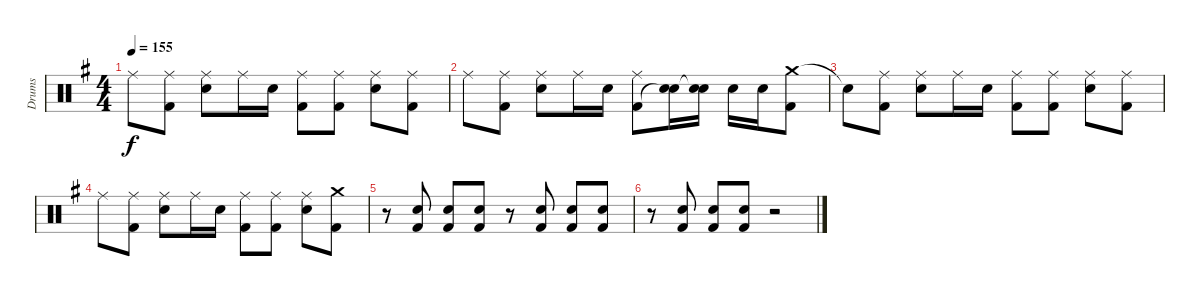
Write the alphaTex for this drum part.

\track ("Drums" "Drums") {instrument percussion}
\staff {score}
\articulation defaults
\ts (4 4)
\tempo 155
\clef neutral
\ks eminor "Ride (middle)".8{dy f}
("Ride (middle)" "Kick (hit) 2").8 ("Ride (middle)" "Electric Snare (hit)").8 "Ride (middle)".16 "Electric Snare (hit)".16 ("Ride (middle)" "Kick (hit) 2").8 ("Ride (middle)" "Kick (hit) 2").8 ("Ride (middle)" "Electric Snare (hit)").8 ("Ride (middle)" "Kick (hit) 2").8 |
"Ride (middle)".8 ("Ride (middle)" "Kick (hit) 2").8 ("Ride (middle)" "Electric Snare (hit)").8 "Ride (middle)".16 "Electric Snare (hit)".16 ("Ride (middle)" "Kick (hit) 2").8 ("Electric Snare (hit)" "Snare (hit)"{t}).16 ("Electric Snare (hit)" "Snare (hit)"{t}).16 "Electric Snare (hit)".16 "Electric Snare (hit)".16 ("Crash medium (hit)" "Kick (hit) 2").8 |
"Snare (hit)"{t}.8 ("Ride (middle)" "Kick (hit) 2").8 ("Ride (middle)" "Electric Snare (hit)").8 "Ride (middle)".16 "Electric Snare (hit)".16 ("Ride (middle)" "Kick (hit) 2").8 ("Ride (middle)" "Kick (hit) 2").8 ("Ride (middle)" "Electric Snare (hit)").8 ("Ride (middle)" "Kick (hit) 2").8 |
"Ride (middle)".8 ("Ride (middle)" "Kick (hit) 2").8 ("Ride (middle)" "Electric Snare (hit)").8 "Ride (middle)".16 "Electric Snare (hit)".16 ("Ride (middle)" "Kick (hit) 2").8 ("Ride (middle)" "Kick (hit) 2").8 ("Ride (middle)" "Electric Snare (hit)").8 ("Crash medium (hit)" "Kick (hit) 2").8 |
r.8 ("Electric Snare (hit)" "Kick (hit) 2").8 ("Electric Snare (hit)" "Kick (hit) 2").8 ("Electric Snare (hit)" "Kick (hit) 2").8 r.8 ("Electric Snare (hit)" "Kick (hit) 2").8 ("Electric Snare (hit)" "Kick (hit) 2").8 ("Electric Snare (hit)" "Kick (hit) 2").8 |
r.8 ("Electric Snare (hit)" "Kick (hit) 2").8 ("Electric Snare (hit)" "Kick (hit) 2").8 ("Electric Snare (hit)" "Kick (hit) 2").8 r.2
